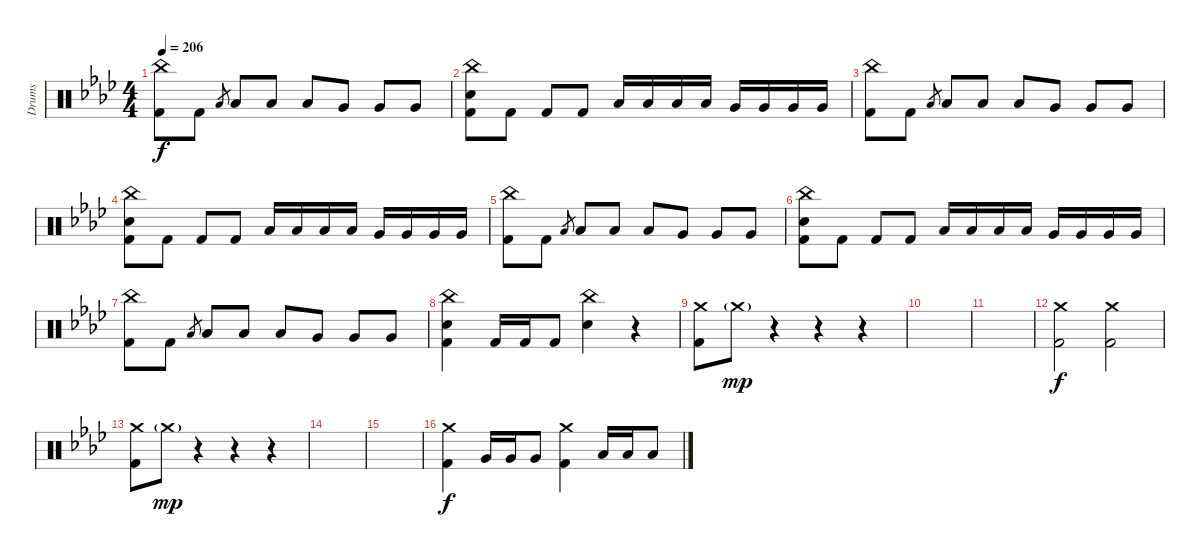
\track ("Drums" "Drums") {instrument percussion}
\staff {score}
\articulation defaults
\ts (4 4)
\tempo 206
\clef neutral
\ks fminor
("China (hit)" "Kick (hit) 2").8{dy f} "Kick (hit) 2".8 "Low Tom (hit)".8{gr} "Low Tom (hit)".8 "Low Tom (hit)".8 "Low Tom (hit)".8 "Very Low Tom (hit)".8 "Very Low Tom (hit)".8 "Very Low Tom (hit)".8 |
("China (hit)" "Electric Snare (hit)" "Kick (hit) 2").8 "Kick (hit) 2".8 "Kick (hit) 2".8 "Kick (hit) 2".8 "Low Tom (hit)".16 "Low Tom (hit)".16 "Low Tom (hit)".16 "Low Tom (hit)".16 "Very Low Tom (hit)".16 "Very Low Tom (hit)".16 "Very Low Tom (hit)".16 "Very Low Tom (hit)".16 |
("China (hit)" "Kick (hit) 2").8 "Kick (hit) 2".8 "Low Tom (hit)".8{gr} "Low Tom (hit)".8 "Low Tom (hit)".8 "Low Tom (hit)".8 "Very Low Tom (hit)".8 "Very Low Tom (hit)".8 "Very Low Tom (hit)".8 |
("China (hit)" "Electric Snare (hit)" "Kick (hit) 2").8 "Kick (hit) 2".8 "Kick (hit) 2".8 "Kick (hit) 2".8 "Low Tom (hit)".16 "Low Tom (hit)".16 "Low Tom (hit)".16 "Low Tom (hit)".16 "Very Low Tom (hit)".16 "Very Low Tom (hit)".16 "Very Low Tom (hit)".16 "Very Low Tom (hit)".16 |
("China (hit)" "Kick (hit) 2").8 "Kick (hit) 2".8 "Low Tom (hit)".8{gr} "Low Tom (hit)".8 "Low Tom (hit)".8 "Low Tom (hit)".8 "Very Low Tom (hit)".8 "Very Low Tom (hit)".8 "Very Low Tom (hit)".8 |
("China (hit)" "Electric Snare (hit)" "Kick (hit) 2").8 "Kick (hit) 2".8 "Kick (hit) 2".8 "Kick (hit) 2".8 "Low Tom (hit)".16 "Low Tom (hit)".16 "Low Tom (hit)".16 "Low Tom (hit)".16 "Very Low Tom (hit)".16 "Very Low Tom (hit)".16 "Very Low Tom (hit)".16 "Very Low Tom (hit)".16 |
("China (hit)" "Kick (hit) 2").8 "Kick (hit) 2".8 "Low Tom (hit)".8{gr} "Low Tom (hit)".8 "Low Tom (hit)".8 "Low Tom (hit)".8 "Very Low Tom (hit)".8 "Very Low Tom (hit)".8 "Very Low Tom (hit)".8 |
("China (hit)" "Electric Snare (hit)" "Kick (hit) 2").4 "Kick (hit) 2".16 "Kick (hit) 2".16 "Kick (hit) 2".8 ("China (hit)" "Electric Snare (hit)").4 r.4 |
("Crash medium (hit)" "Kick (hit) 2").8 "Crash medium (hit)"{g}.8{dy mp} r.4 r.4 r.4 |
|
|
("Crash medium (hit)" "Kick (hit) 2").2{dy f} ("Crash medium (hit)" "Kick (hit) 2").2 |
("Crash medium (hit)" "Kick (hit) 2").8 "Crash medium (hit)"{g}.8{dy mp} r.4 r.4 r.4 |
|
|
("Crash medium (hit)" "Kick (hit) 2").4{dy f} "Very Low Tom (hit)".16 "Very Low Tom (hit)".16 "Very Low Tom (hit)".8 ("Crash medium (hit)" "Kick (hit) 2").4 "Low Floor Tom (hit)".16 "Low Floor Tom (hit)".16 "Low Floor Tom (hit)".8
